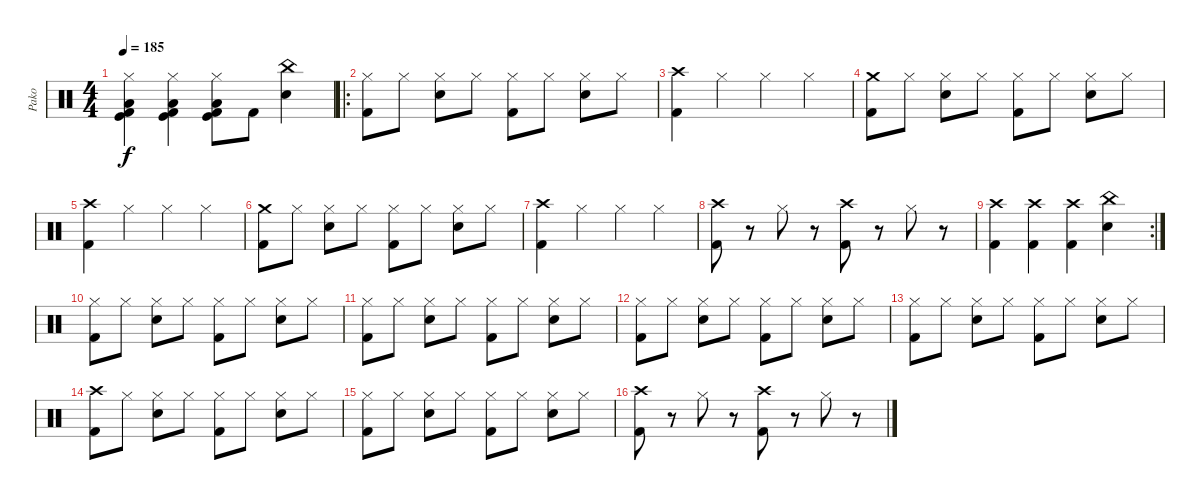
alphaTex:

\track ("Pako" "Pako") {instrument percussion}
\staff {score}
\articulation defaults
\ts (4 4)
\tempo 185
\clef neutral
\ks c
("Hi-Hat (closed)" "Low Tom (hit)" "Kick (hit)" "Kick (hit) 2").4{dy f} ("Hi-Hat (closed)" "Low Tom (hit)" "Kick (hit)" "Kick (hit) 2").4 ("Hi-Hat (closed)" "Low Tom (hit)" "Kick (hit)" "Kick (hit) 2").8 "Kick (hit) 2".8 ("China (hit)" "Snare (hit) 2").4 |
\ro
("Hi-Hat (closed)" "Kick (hit) 2").8 "Hi-Hat (closed)".8 ("Hi-Hat (closed)" "Snare (hit) 2").8 "Hi-Hat (closed)".8 ("Hi-Hat (closed)" "Kick (hit) 2").8 "Hi-Hat (closed)".8 ("Hi-Hat (closed)" "Snare (hit) 2").8 "Hi-Hat (closed)".8 |
("Crash high (hit)" "Kick (hit) 2").4 "Hi-Hat (closed)".4 "Hi-Hat (closed)".4 "Hi-Hat (closed)".4 |
("Crash medium (hit)" "Kick (hit) 2").8 "Hi-Hat (closed)".8 ("Hi-Hat (closed)" "Snare (hit) 2").8 "Hi-Hat (closed)".8 ("Hi-Hat (closed)" "Kick (hit) 2").8 "Hi-Hat (closed)".8 ("Hi-Hat (closed)" "Snare (hit) 2").8 "Hi-Hat (closed)".8 |
("Crash high (hit)" "Kick (hit) 2").4 "Hi-Hat (closed)".4 "Hi-Hat (closed)".4 "Hi-Hat (closed)".4 |
("Crash medium (hit)" "Kick (hit) 2").8 "Hi-Hat (closed)".8 ("Hi-Hat (closed)" "Snare (hit) 2").8 "Hi-Hat (closed)".8 ("Hi-Hat (closed)" "Kick (hit) 2").8 "Hi-Hat (closed)".8 ("Hi-Hat (closed)" "Snare (hit) 2").8 "Hi-Hat (closed)".8 |
("Crash high (hit)" "Kick (hit) 2").4 "Hi-Hat (closed)".4 "Hi-Hat (closed)".4 "Hi-Hat (closed)".4 |
("Crash high (hit)" "Kick (hit) 2").8 r.8 "Hi-Hat (closed)".8 r.8 ("Crash high (hit)" "Kick (hit) 2").8 r.8 "Hi-Hat (closed)".8 r.8 |
\rc 2
("Crash high (hit)" "Kick (hit) 2").4 ("Crash high (hit)" "Kick (hit) 2").4 ("Crash high (hit)" "Kick (hit) 2").4 ("China (hit)" "Snare (hit) 2").4 |
("Hi-Hat (closed)" "Kick (hit) 2").8 "Hi-Hat (closed)".8 ("Hi-Hat (closed)" "Snare (hit) 2").8 "Hi-Hat (closed)".8 ("Hi-Hat (closed)" "Kick (hit) 2").8 "Hi-Hat (closed)".8 ("Hi-Hat (closed)" "Snare (hit) 2").8 "Hi-Hat (closed)".8 |
("Hi-Hat (closed)" "Kick (hit) 2").8 "Hi-Hat (closed)".8 ("Hi-Hat (closed)" "Snare (hit) 2").8 "Hi-Hat (closed)".8 ("Hi-Hat (closed)" "Kick (hit) 2").8 "Hi-Hat (closed)".8 ("Hi-Hat (closed)" "Snare (hit) 2").8 "Hi-Hat (closed)".8 |
("Hi-Hat (closed)" "Kick (hit) 2").8 "Hi-Hat (closed)".8 ("Hi-Hat (closed)" "Snare (hit) 2").8 "Hi-Hat (closed)".8 ("Hi-Hat (closed)" "Kick (hit) 2").8 "Hi-Hat (closed)".8 ("Hi-Hat (closed)" "Snare (hit) 2").8 "Hi-Hat (closed)".8 |
("Hi-Hat (closed)" "Kick (hit) 2").8 "Hi-Hat (closed)".8 ("Hi-Hat (closed)" "Snare (hit) 2").8 "Hi-Hat (closed)".8 ("Hi-Hat (closed)" "Kick (hit) 2").8 "Hi-Hat (closed)".8 ("Hi-Hat (closed)" "Snare (hit) 2").8 "Hi-Hat (closed)".8 |
("Crash high (hit)" "Kick (hit) 2").8 "Hi-Hat (closed)".8 ("Hi-Hat (closed)" "Snare (hit) 2").8 "Hi-Hat (closed)".8 ("Hi-Hat (closed)" "Kick (hit) 2").8 "Hi-Hat (closed)".8 ("Hi-Hat (closed)" "Snare (hit) 2").8 "Hi-Hat (closed)".8 |
("Hi-Hat (closed)" "Kick (hit) 2").8 "Hi-Hat (closed)".8 ("Hi-Hat (closed)" "Snare (hit) 2").8 "Hi-Hat (closed)".8 ("Hi-Hat (closed)" "Kick (hit) 2").8 "Hi-Hat (closed)".8 ("Hi-Hat (closed)" "Snare (hit) 2").8 "Hi-Hat (closed)".8 |
("Crash high (hit)" "Kick (hit) 2").8 r.8 "Hi-Hat (closed)".8 r.8 ("Crash high (hit)" "Kick (hit) 2").8 r.8 "Hi-Hat (closed)".8 r.8
